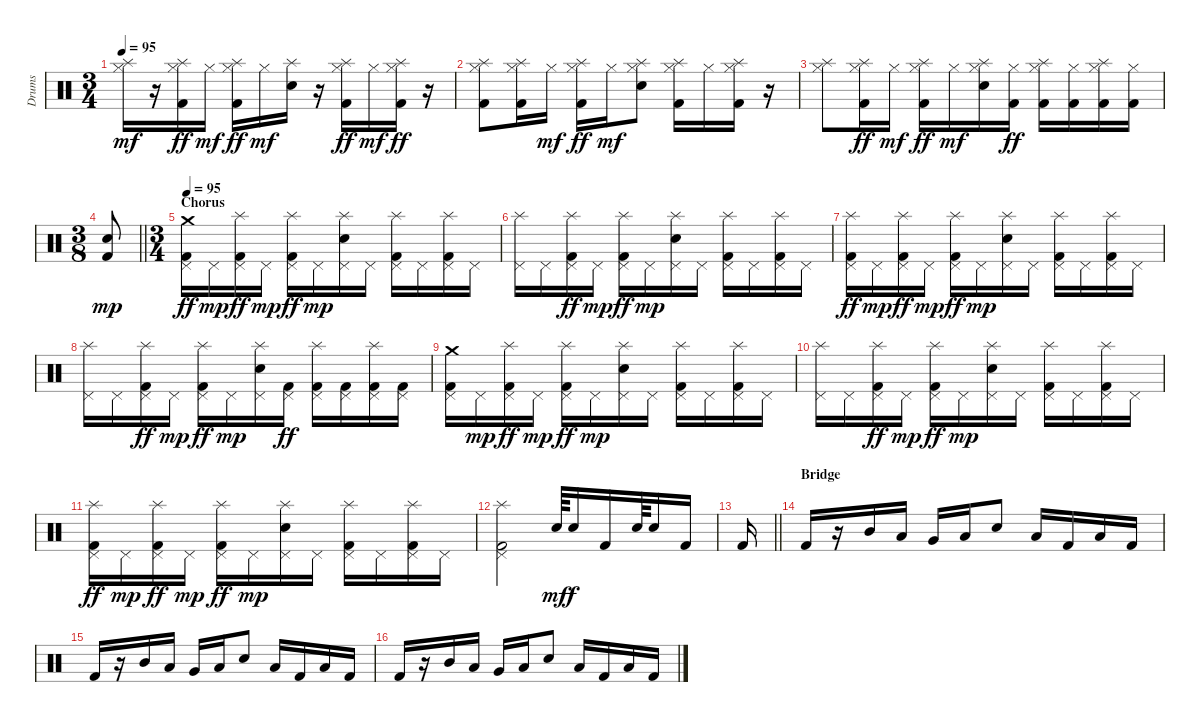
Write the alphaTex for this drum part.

\track ("Drums" "Drums") {instrument percussion}
\staff {score}
\articulation defaults
\ts (3 4)
\tempo 95
\clef neutral
\ks c
("Splash (hit)" "Hi-Hat (closed)").16{dy mf} r.16 ("Splash (hit)" "Hi-Hat (closed)" "Kick (hit) 2").16{dy ff} "Hi-Hat (closed)".16{dy mf} ("Splash (hit)" "Hi-Hat (closed)" "Kick (hit) 2").16{dy ff} "Hi-Hat (closed)".16{dy mf} ("Splash (hit)" "Electric Snare (hit)").16 r.16 ("Splash (hit)" "Hi-Hat (closed)" "Kick (hit) 2").16{dy ff} "Hi-Hat (closed)".16{dy mf} ("Splash (hit)" "Hi-Hat (closed)" "Kick (hit) 2").16{dy ff} r.16 |
("Splash (hit)" "Hi-Hat (closed)" "Kick (hit) 2").8 ("Splash (hit)" "Hi-Hat (closed)" "Kick (hit) 2").16 "Hi-Hat (closed)".16{dy mf} ("Splash (hit)" "Hi-Hat (closed)" "Kick (hit) 2").16{dy ff} "Hi-Hat (closed)".16{dy mf} ("Splash (hit)" "Hi-Hat (closed)" "Electric Snare (hit)").8 ("Splash (hit)" "Hi-Hat (closed)" "Kick (hit) 2").16 "Hi-Hat (closed)".16 ("Splash (hit)" "Hi-Hat (closed)" "Kick (hit) 2").16 r.16 |
("Splash (hit)" "Hi-Hat (closed)").8 ("Splash (hit)" "Hi-Hat (closed)" "Kick (hit) 2").16{dy ff} "Hi-Hat (closed)".16{dy mf} ("Splash (hit)" "Hi-Hat (closed)" "Kick (hit) 2").16{dy ff} "Hi-Hat (closed)".16{dy mf} ("Splash (hit)" "Hi-Hat (closed)" "Electric Snare (hit)").16 ("Hi-Hat (closed)" "Kick (hit) 2").16{dy ff} ("Splash (hit)" "Hi-Hat (closed)" "Kick (hit) 2").16 ("Hi-Hat (closed)" "Kick (hit) 2").16 ("Splash (hit)" "Hi-Hat (closed)" "Kick (hit) 2").16 ("Hi-Hat (closed)" "Kick (hit) 2").16 |
\ts (3 8)
\barLineRight lightlight
("Electric Snare (hit)" "Kick (hit) 2").8{dy mp} |
\ts (3 4)
\section ("" "Chorus")
\tempo 95
("Crash medium (hit)" "Pedal Hi-Hat (hit)" "Kick (hit) 2").16{dy ff} "Pedal Hi-Hat (hit)".16{dy mp} ("Splash (hit)" "Pedal Hi-Hat (hit)" "Kick (hit) 2").16{dy ff} "Pedal Hi-Hat (hit)".16{dy mp} ("Splash (hit)" "Pedal Hi-Hat (hit)" "Kick (hit) 2").16{dy ff} "Pedal Hi-Hat (hit)".16{dy mp} ("Splash (hit)" "Pedal Hi-Hat (hit)" "Electric Snare (hit)").16 "Pedal Hi-Hat (hit)".16 ("Splash (hit)" "Pedal Hi-Hat (hit)" "Kick (hit) 2").16 "Pedal Hi-Hat (hit)".16 ("Splash (hit)" "Pedal Hi-Hat (hit)" "Kick (hit) 2").16 "Pedal Hi-Hat (hit)".16 |
("Splash (hit)" "Pedal Hi-Hat (hit)").16 "Pedal Hi-Hat (hit)".16 ("Splash (hit)" "Pedal Hi-Hat (hit)" "Kick (hit) 2").16{dy ff} "Pedal Hi-Hat (hit)".16{dy mp} ("Splash (hit)" "Pedal Hi-Hat (hit)" "Kick (hit) 2").16{dy ff} "Pedal Hi-Hat (hit)".16{dy mp} ("Splash (hit)" "Pedal Hi-Hat (hit)" "Electric Snare (hit)").16 "Pedal Hi-Hat (hit)".16 ("Splash (hit)" "Pedal Hi-Hat (hit)" "Kick (hit) 2").16 "Pedal Hi-Hat (hit)".16 ("Splash (hit)" "Pedal Hi-Hat (hit)" "Kick (hit) 2").16 "Pedal Hi-Hat (hit)".16 |
("Splash (hit)" "Pedal Hi-Hat (hit)" "Kick (hit) 2").16{dy ff} "Pedal Hi-Hat (hit)".16{dy mp} ("Splash (hit)" "Pedal Hi-Hat (hit)" "Kick (hit) 2").16{dy ff} "Pedal Hi-Hat (hit)".16{dy mp} ("Splash (hit)" "Pedal Hi-Hat (hit)" "Kick (hit) 2").16{dy ff} "Pedal Hi-Hat (hit)".16{dy mp} ("Splash (hit)" "Pedal Hi-Hat (hit)" "Electric Snare (hit)").16 "Pedal Hi-Hat (hit)".16 ("Splash (hit)" "Pedal Hi-Hat (hit)" "Kick (hit) 2").16 "Pedal Hi-Hat (hit)".16 ("Splash (hit)" "Pedal Hi-Hat (hit)" "Kick (hit) 2").16 "Pedal Hi-Hat (hit)".16 |
("Splash (hit)" "Pedal Hi-Hat (hit)").16 "Pedal Hi-Hat (hit)".16 ("Splash (hit)" "Pedal Hi-Hat (hit)" "Kick (hit) 2").16{dy ff} "Pedal Hi-Hat (hit)".16{dy mp} ("Splash (hit)" "Pedal Hi-Hat (hit)" "Kick (hit) 2").16{dy ff} "Pedal Hi-Hat (hit)".16{dy mp} ("Splash (hit)" "Pedal Hi-Hat (hit)" "Electric Snare (hit)").16 ("Pedal Hi-Hat (hit)" "Kick (hit) 2").16{dy ff} ("Splash (hit)" "Pedal Hi-Hat (hit)" "Kick (hit) 2").16 ("Pedal Hi-Hat (hit)" "Kick (hit) 2").16 ("Splash (hit)" "Pedal Hi-Hat (hit)" "Kick (hit) 2").16 ("Pedal Hi-Hat (hit)" "Kick (hit) 2").16 |
("Crash medium (hit)" "Pedal Hi-Hat (hit)" "Kick (hit) 2").16 "Pedal Hi-Hat (hit)".16{dy mp} ("Splash (hit)" "Pedal Hi-Hat (hit)" "Kick (hit) 2").16{dy ff} "Pedal Hi-Hat (hit)".16{dy mp} ("Splash (hit)" "Pedal Hi-Hat (hit)" "Kick (hit) 2").16{dy ff} "Pedal Hi-Hat (hit)".16{dy mp} ("Splash (hit)" "Pedal Hi-Hat (hit)" "Electric Snare (hit)").16 "Pedal Hi-Hat (hit)".16 ("Splash (hit)" "Pedal Hi-Hat (hit)" "Kick (hit) 2").16 "Pedal Hi-Hat (hit)".16 ("Splash (hit)" "Pedal Hi-Hat (hit)" "Kick (hit) 2").16 "Pedal Hi-Hat (hit)".16 |
("Splash (hit)" "Pedal Hi-Hat (hit)").16 "Pedal Hi-Hat (hit)".16 ("Splash (hit)" "Pedal Hi-Hat (hit)" "Kick (hit) 2").16{dy ff} "Pedal Hi-Hat (hit)".16{dy mp} ("Splash (hit)" "Pedal Hi-Hat (hit)" "Kick (hit) 2").16{dy ff} "Pedal Hi-Hat (hit)".16{dy mp} ("Splash (hit)" "Pedal Hi-Hat (hit)" "Electric Snare (hit)").16 "Pedal Hi-Hat (hit)".16 ("Splash (hit)" "Pedal Hi-Hat (hit)" "Kick (hit) 2").16 "Pedal Hi-Hat (hit)".16 ("Splash (hit)" "Pedal Hi-Hat (hit)" "Kick (hit) 2").16 "Pedal Hi-Hat (hit)".16 |
("Splash (hit)" "Pedal Hi-Hat (hit)" "Kick (hit) 2").16{dy ff} "Pedal Hi-Hat (hit)".16{dy mp} ("Splash (hit)" "Pedal Hi-Hat (hit)" "Kick (hit) 2").16{dy ff} "Pedal Hi-Hat (hit)".16{dy mp} ("Splash (hit)" "Pedal Hi-Hat (hit)" "Kick (hit) 2").16{dy ff} "Pedal Hi-Hat (hit)".16{dy mp} ("Splash (hit)" "Pedal Hi-Hat (hit)" "Electric Snare (hit)").16 "Pedal Hi-Hat (hit)".16 ("Splash (hit)" "Pedal Hi-Hat (hit)" "Kick (hit) 2").16 "Pedal Hi-Hat (hit)".16 ("Splash (hit)" "Pedal Hi-Hat (hit)" "Kick (hit) 2").16 "Pedal Hi-Hat (hit)".16 |
("Splash (hit)" "Pedal Hi-Hat (hit)" "Kick (hit) 2").2 "Electric Snare (hit)".64{dy mf} "Electric Snare (hit)".16{dy f} "Kick (hit) 2".16 "Electric Snare (hit)".64 "Electric Snare (hit)".16 "Kick (hit) 2".16 |
\barLineRight lightlight "Kick (hit) 2".16
|
\section ("" "Bridge")
"Kick (hit) 2".16 r.16 "Mid Tom (hit)".16 "Low Tom (hit)".16 "Very Low Tom (hit)".16 "Low Floor Tom (hit)".16 "Electric Snare (hit)".8 "Low Floor Tom (hit)".16 "Kick (hit) 2".16 "Low Floor Tom (hit)".16 "Kick (hit) 2".16 |
"Kick (hit) 2".16 r.16 "Mid Tom (hit)".16 "Low Tom (hit)".16 "Very Low Tom (hit)".16 "Low Floor Tom (hit)".16 "Electric Snare (hit)".8 "Low Floor Tom (hit)".16 "Kick (hit) 2".16 "Low Floor Tom (hit)".16 "Kick (hit) 2".16 |
"Kick (hit) 2".16 r.16 "Mid Tom (hit)".16 "Low Tom (hit)".16 "Very Low Tom (hit)".16 "Low Floor Tom (hit)".16 "Electric Snare (hit)".8 "Low Floor Tom (hit)".16 "Kick (hit) 2".16 "Low Floor Tom (hit)".16 "Kick (hit) 2".16
